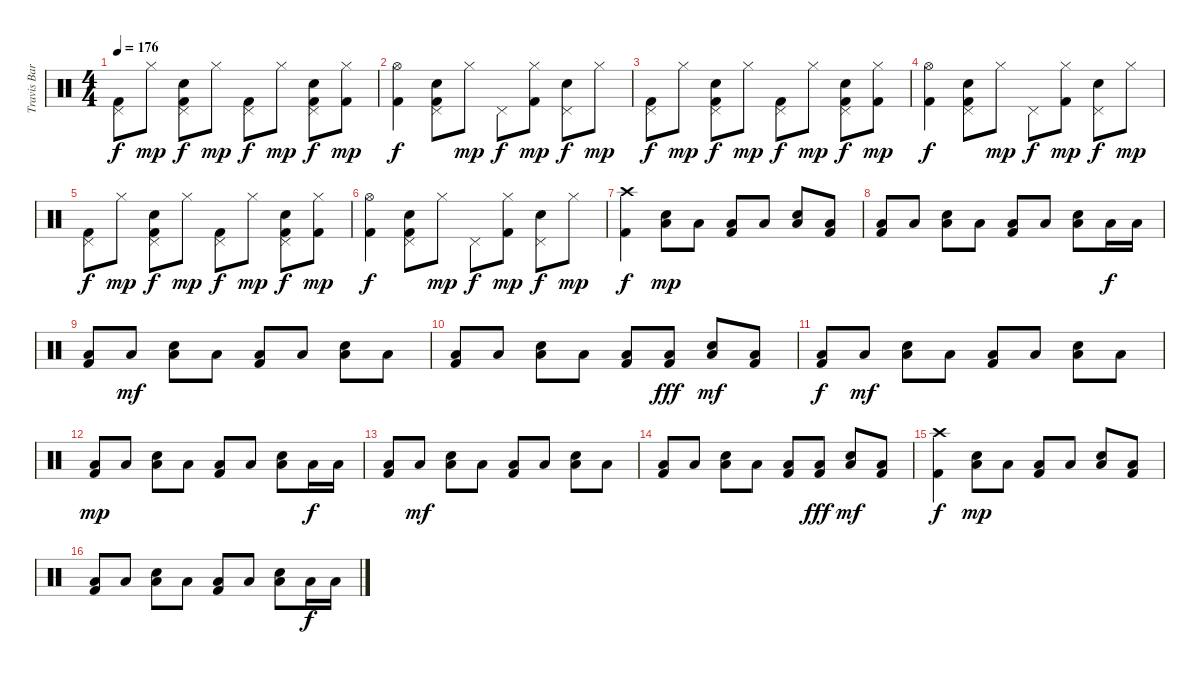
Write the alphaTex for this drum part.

\track ("Travis Barker - Drums" "Travis Bar") {instrument percussion}
\staff {score}
\articulation defaults
\ts (4 4)
\tempo 176
\clef neutral
\ks c
("Pedal Hi-Hat (hit)" "Kick (hit) 2").8{dy f} "Hi-Hat (closed)".8{dy mp} ("Pedal Hi-Hat (hit)" "Electric Snare (hit)" "Kick (hit) 2").8{dy f} "Hi-Hat (closed)".8{dy mp} ("Pedal Hi-Hat (hit)" "Kick (hit) 2").8{dy f} "Hi-Hat (closed)".8{dy mp} ("Pedal Hi-Hat (hit)" "Electric Snare (hit)" "Kick (hit) 2").8{dy f} ("Hi-Hat (closed)" "Kick (hit) 2").8{dy mp} |
("Hi-Hat (open)" "Kick (hit) 2").4{dy f} ("Pedal Hi-Hat (hit)" "Electric Snare (hit)" "Kick (hit) 2").8 "Hi-Hat (closed)".8{dy mp} "Pedal Hi-Hat (hit)".8{dy f} ("Hi-Hat (closed)" "Kick (hit) 2").8{dy mp} ("Pedal Hi-Hat (hit)" "Electric Snare (hit)").8{dy f} "Hi-Hat (closed)".8{dy mp} |
("Pedal Hi-Hat (hit)" "Kick (hit) 2").8{dy f} "Hi-Hat (closed)".8{dy mp} ("Pedal Hi-Hat (hit)" "Electric Snare (hit)" "Kick (hit) 2").8{dy f} "Hi-Hat (closed)".8{dy mp} ("Pedal Hi-Hat (hit)" "Kick (hit) 2").8{dy f} "Hi-Hat (closed)".8{dy mp} ("Pedal Hi-Hat (hit)" "Electric Snare (hit)" "Kick (hit) 2").8{dy f} ("Hi-Hat (closed)" "Kick (hit) 2").8{dy mp} |
("Hi-Hat (open)" "Kick (hit) 2").4{dy f} ("Pedal Hi-Hat (hit)" "Electric Snare (hit)" "Kick (hit) 2").8 "Hi-Hat (closed)".8{dy mp} "Pedal Hi-Hat (hit)".8{dy f} ("Hi-Hat (closed)" "Kick (hit) 2").8{dy mp} ("Pedal Hi-Hat (hit)" "Electric Snare (hit)").8{dy f} "Hi-Hat (closed)".8{dy mp} |
("Pedal Hi-Hat (hit)" "Kick (hit) 2").8{dy f} "Hi-Hat (closed)".8{dy mp} ("Pedal Hi-Hat (hit)" "Electric Snare (hit)" "Kick (hit) 2").8{dy f} "Hi-Hat (closed)".8{dy mp} ("Pedal Hi-Hat (hit)" "Kick (hit) 2").8{dy f} "Hi-Hat (closed)".8{dy mp} ("Pedal Hi-Hat (hit)" "Electric Snare (hit)" "Kick (hit) 2").8{dy f} ("Hi-Hat (closed)" "Kick (hit) 2").8{dy mp} |
("Hi-Hat (open)" "Kick (hit) 2").4{dy f} ("Pedal Hi-Hat (hit)" "Electric Snare (hit)" "Kick (hit) 2").8 "Hi-Hat (closed)".8{dy mp} "Pedal Hi-Hat (hit)".8{dy f} ("Hi-Hat (closed)" "Kick (hit) 2").8{dy mp} ("Pedal Hi-Hat (hit)" "Electric Snare (hit)").8{dy f} "Hi-Hat (closed)".8{dy mp} |
("Crash high (hit)" "Kick (hit) 2").4{dy f} ("Low Floor Tom (hit)" "Electric Snare (hit)").8{dy mp} "Low Floor Tom (hit)".8 ("Low Floor Tom (hit)" "Kick (hit) 2").8 "Low Floor Tom (hit)".8 ("Low Floor Tom (hit)" "Electric Snare (hit)").8 ("Low Floor Tom (hit)" "Kick (hit) 2").8 |
("Low Floor Tom (hit)" "Kick (hit) 2").8 "Low Floor Tom (hit)".8 ("Low Floor Tom (hit)" "Electric Snare (hit)").8 "Low Floor Tom (hit)".8 ("Low Floor Tom (hit)" "Kick (hit) 2").8 "Low Floor Tom (hit)".8 ("Low Floor Tom (hit)" "Electric Snare (hit)").8 "Low Tom (hit)".16{dy f} "Low Tom (hit)".16 |
("Low Floor Tom (hit)" "Kick (hit) 2").8 "Low Floor Tom (hit)".8{dy mf} ("Low Floor Tom (hit)" "Electric Snare (hit)").8 "Low Floor Tom (hit)".8 ("Low Floor Tom (hit)" "Kick (hit) 2").8 "Low Floor Tom (hit)".8 ("Low Floor Tom (hit)" "Electric Snare (hit)").8 "Low Floor Tom (hit)".8 |
("Low Floor Tom (hit)" "Kick (hit) 2").8 "Low Floor Tom (hit)".8 ("Low Floor Tom (hit)" "Electric Snare (hit)").8 "Low Floor Tom (hit)".8 ("Low Floor Tom (hit)" "Kick (hit) 2").8 ("Low Tom (hit)" "Kick (hit) 2").8{dy fff} ("Low Floor Tom (hit)" "Electric Snare (hit)").8{dy mf} ("Low Floor Tom (hit)" "Kick (hit) 2").8 |
("Low Floor Tom (hit)" "Kick (hit) 2").8{dy f} "Low Floor Tom (hit)".8{dy mf} ("Low Floor Tom (hit)" "Electric Snare (hit)").8 "Low Floor Tom (hit)".8 ("Low Floor Tom (hit)" "Kick (hit) 2").8 "Low Floor Tom (hit)".8 ("Low Floor Tom (hit)" "Electric Snare (hit)").8 "Low Floor Tom (hit)".8 |
("Low Floor Tom (hit)" "Kick (hit) 2").8{dy mp} "Low Floor Tom (hit)".8 ("Low Floor Tom (hit)" "Electric Snare (hit)").8 "Low Floor Tom (hit)".8 ("Low Floor Tom (hit)" "Kick (hit) 2").8 "Low Floor Tom (hit)".8 ("Low Floor Tom (hit)" "Electric Snare (hit)").8 "Low Tom (hit)".16{dy f} "Low Tom (hit)".16 |
("Low Floor Tom (hit)" "Kick (hit) 2").8 "Low Floor Tom (hit)".8{dy mf} ("Low Floor Tom (hit)" "Electric Snare (hit)").8 "Low Floor Tom (hit)".8 ("Low Floor Tom (hit)" "Kick (hit) 2").8 "Low Floor Tom (hit)".8 ("Low Floor Tom (hit)" "Electric Snare (hit)").8 "Low Floor Tom (hit)".8 |
("Low Floor Tom (hit)" "Kick (hit) 2").8 "Low Floor Tom (hit)".8 ("Low Floor Tom (hit)" "Electric Snare (hit)").8 "Low Floor Tom (hit)".8 ("Low Floor Tom (hit)" "Kick (hit) 2").8 ("Low Tom (hit)" "Kick (hit) 2").8{dy fff} ("Low Floor Tom (hit)" "Electric Snare (hit)").8{dy mf} ("Low Floor Tom (hit)" "Kick (hit) 2").8 |
("Crash high (hit)" "Kick (hit) 2").4{dy f} ("Low Floor Tom (hit)" "Electric Snare (hit)").8{dy mp} "Low Floor Tom (hit)".8 ("Low Floor Tom (hit)" "Kick (hit) 2").8 "Low Floor Tom (hit)".8 ("Low Floor Tom (hit)" "Electric Snare (hit)").8 ("Low Floor Tom (hit)" "Kick (hit) 2").8 |
("Low Floor Tom (hit)" "Kick (hit) 2").8 "Low Floor Tom (hit)".8 ("Low Floor Tom (hit)" "Electric Snare (hit)").8 "Low Floor Tom (hit)".8 ("Low Floor Tom (hit)" "Kick (hit) 2").8 "Low Floor Tom (hit)".8 ("Low Floor Tom (hit)" "Electric Snare (hit)").8 "Low Tom (hit)".16{dy f} "Low Tom (hit)".16
